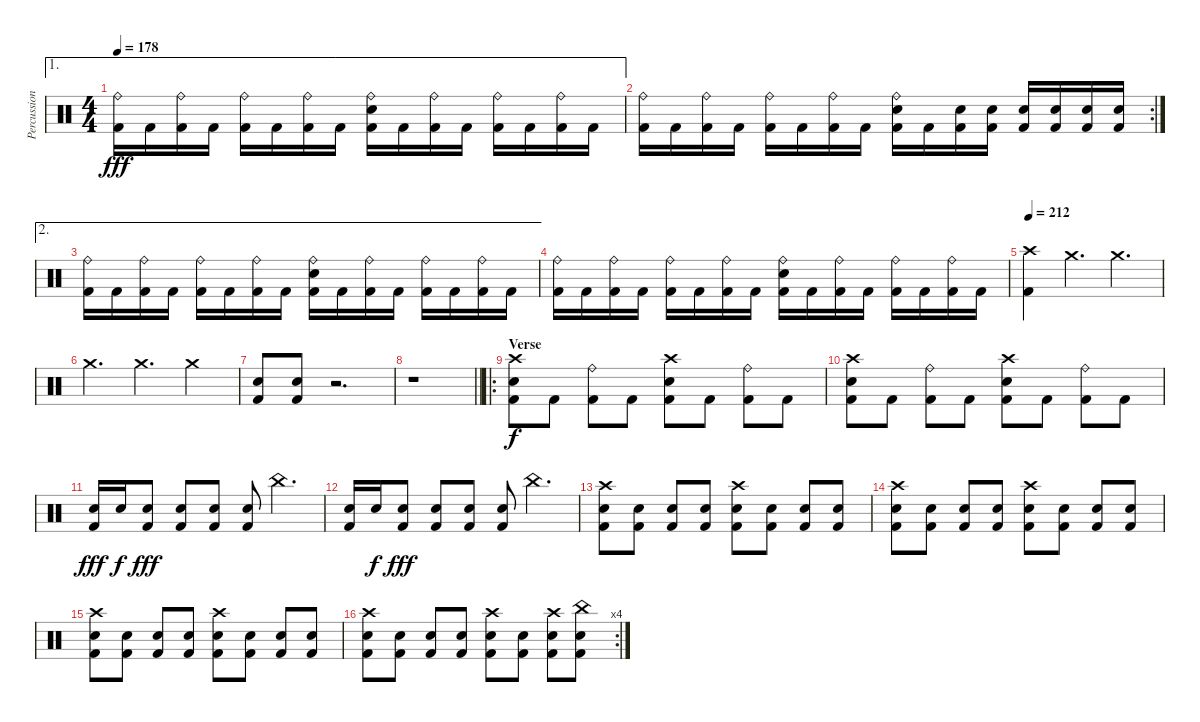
\track ("Percussion" "Percussion") {instrument percussion}
\staff {score}
\articulation defaults
\ae 1
\ts (4 4)
\tempo 178
\clef neutral
\ks c
("Ride (bell)" "Kick (hit) 2").16{dy fff} "Kick (hit) 2".16 ("Ride (bell)" "Kick (hit) 2").16 "Kick (hit) 2".16 ("Ride (bell)" "Kick (hit) 2").16 "Kick (hit) 2".16 ("Ride (bell)" "Kick (hit) 2").16 "Kick (hit) 2".16 ("Ride (bell)" "Electric Snare (hit)" "Kick (hit) 2").16 "Kick (hit) 2".16 ("Ride (bell)" "Kick (hit) 2").16 "Kick (hit) 2".16 ("Ride (bell)" "Kick (hit) 2").16 "Kick (hit) 2".16 ("Ride (bell)" "Kick (hit) 2").16 "Kick (hit) 2".16 |
\rc 2
("Ride (bell)" "Kick (hit) 2").16 "Kick (hit) 2".16 ("Ride (bell)" "Kick (hit) 2").16 "Kick (hit) 2".16 ("Ride (bell)" "Kick (hit) 2").16 "Kick (hit) 2".16 ("Ride (bell)" "Kick (hit) 2").16 "Kick (hit) 2".16 ("Ride (bell)" "Electric Snare (hit)" "Kick (hit) 2").16 "Kick (hit) 2".16 ("Electric Snare (hit)" "Kick (hit) 2").16 ("Electric Snare (hit)" "Kick (hit) 2").16 ("Electric Snare (hit)" "Kick (hit) 2").16 ("Electric Snare (hit)" "Kick (hit) 2").16 ("Electric Snare (hit)" "Kick (hit) 2").16 ("Electric Snare (hit)" "Kick (hit) 2").16 |
\ae 2
("Ride (bell)" "Kick (hit) 2").16 "Kick (hit) 2".16 ("Ride (bell)" "Kick (hit) 2").16 "Kick (hit) 2".16 ("Ride (bell)" "Kick (hit) 2").16 "Kick (hit) 2".16 ("Ride (bell)" "Kick (hit) 2").16 "Kick (hit) 2".16 ("Ride (bell)" "Electric Snare (hit)" "Kick (hit) 2").16 "Kick (hit) 2".16 ("Ride (bell)" "Kick (hit) 2").16 "Kick (hit) 2".16 ("Ride (bell)" "Kick (hit) 2").16 "Kick (hit) 2".16 ("Ride (bell)" "Kick (hit) 2").16 "Kick (hit) 2".16 |
("Ride (bell)" "Kick (hit) 2").16 "Kick (hit) 2".16 ("Ride (bell)" "Kick (hit) 2").16 "Kick (hit) 2".16 ("Ride (bell)" "Kick (hit) 2").16 "Kick (hit) 2".16 ("Ride (bell)" "Kick (hit) 2").16 "Kick (hit) 2".16 ("Ride (bell)" "Electric Snare (hit)" "Kick (hit) 2").16 "Kick (hit) 2".16 ("Ride (bell)" "Kick (hit) 2").16 "Kick (hit) 2".16 ("Ride (bell)" "Kick (hit) 2").16 "Kick (hit) 2".16 ("Ride (bell)" "Kick (hit) 2").16 "Kick (hit) 2".16 |
\tempo 212
("Crash high (hit)" "Kick (hit) 2").4 "Crash medium (hit)".4{d} "Crash medium (hit)".4{d} |
"Crash medium (hit)".4{d} "Crash medium (hit)".4{d} "Crash medium (hit)".4 |
("Electric Snare (hit)" "Kick (hit) 2").8 ("Electric Snare (hit)" "Kick (hit) 2").8 r.2{d} |
\barLineRight lightlight
r.1 |
\ro
\section ("" "Verse")
("Crash high (hit)" "Electric Snare (hit)" "Kick (hit) 2").8{dy f} "Kick (hit) 2".8 ("Ride (bell)" "Kick (hit) 2").8 "Kick (hit) 2".8 ("Crash high (hit)" "Electric Snare (hit)" "Kick (hit) 2").8 "Kick (hit) 2".8 ("Ride (bell)" "Kick (hit) 2").8 "Kick (hit) 2".8 |
("Crash high (hit)" "Electric Snare (hit)" "Kick (hit) 2").8 "Kick (hit) 2".8 ("Ride (bell)" "Kick (hit) 2").8 "Kick (hit) 2".8 ("Crash high (hit)" "Electric Snare (hit)" "Kick (hit) 2").8 "Kick (hit) 2".8 ("Ride (bell)" "Kick (hit) 2").8 "Kick (hit) 2".8 |
("Electric Snare (hit)" "Kick (hit) 2").16{dy fff} "Electric Snare (hit)".16{dy f} ("Electric Snare (hit)" "Kick (hit) 2").8{dy fff} ("Electric Snare (hit)" "Kick (hit) 2").8 ("Electric Snare (hit)" "Kick (hit) 2").8 ("Electric Snare (hit)" "Kick (hit) 2").8 "China (hit)".4{d} |
("Electric Snare (hit)" "Kick (hit) 2").16 "Electric Snare (hit)".16{dy f} ("Electric Snare (hit)" "Kick (hit) 2").8{dy fff} ("Electric Snare (hit)" "Kick (hit) 2").8 ("Electric Snare (hit)" "Kick (hit) 2").8 ("Electric Snare (hit)" "Kick (hit) 2").8 "China (hit)".4{d} |
("Crash high (hit)" "Electric Snare (hit)" "Kick (hit) 2").8 ("Electric Snare (hit)" "Kick (hit) 2").8 ("Electric Snare (hit)" "Kick (hit) 2").8 ("Electric Snare (hit)" "Kick (hit) 2").8 ("Crash high (hit)" "Electric Snare (hit)" "Kick (hit) 2").8 ("Electric Snare (hit)" "Kick (hit) 2").8 ("Electric Snare (hit)" "Kick (hit) 2").8 ("Electric Snare (hit)" "Kick (hit) 2").8 |
("Crash high (hit)" "Electric Snare (hit)" "Kick (hit) 2").8 ("Electric Snare (hit)" "Kick (hit) 2").8 ("Electric Snare (hit)" "Kick (hit) 2").8 ("Electric Snare (hit)" "Kick (hit) 2").8 ("Crash high (hit)" "Electric Snare (hit)" "Kick (hit) 2").8 ("Electric Snare (hit)" "Kick (hit) 2").8 ("Electric Snare (hit)" "Kick (hit) 2").8 ("Electric Snare (hit)" "Kick (hit) 2").8 |
("Crash high (hit)" "Electric Snare (hit)" "Kick (hit) 2").8 ("Electric Snare (hit)" "Kick (hit) 2").8 ("Electric Snare (hit)" "Kick (hit) 2").8 ("Electric Snare (hit)" "Kick (hit) 2").8 ("Crash high (hit)" "Electric Snare (hit)" "Kick (hit) 2").8 ("Electric Snare (hit)" "Kick (hit) 2").8 ("Electric Snare (hit)" "Kick (hit) 2").8 ("Electric Snare (hit)" "Kick (hit) 2").8 |
\rc 4
("Crash high (hit)" "Electric Snare (hit)" "Kick (hit) 2").8 ("Electric Snare (hit)" "Kick (hit) 2").8 ("Electric Snare (hit)" "Kick (hit) 2").8 ("Electric Snare (hit)" "Kick (hit) 2").8 ("Crash high (hit)" "Electric Snare (hit)" "Kick (hit) 2").8 ("Electric Snare (hit)" "Kick (hit) 2").8 ("Crash high (hit)" "Electric Snare (hit)" "Kick (hit) 2").8 ("China (hit)" "Electric Snare (hit)" "Kick (hit) 2").8
